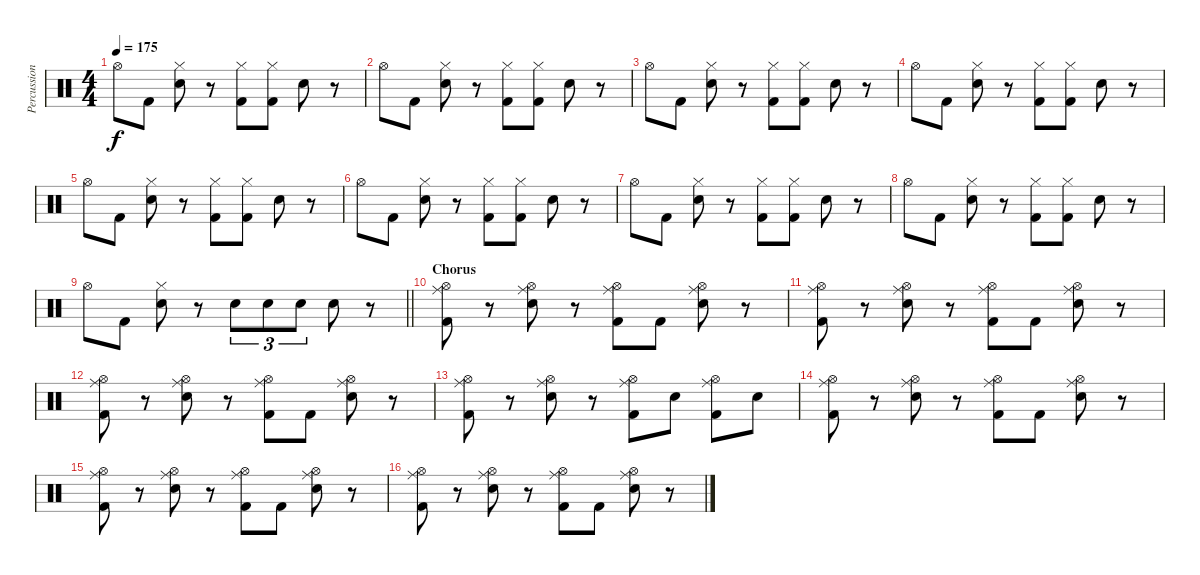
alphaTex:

\track ("Percussion" "Percussion") {instrument percussion}
\staff {score}
\articulation defaults
\ts (4 4)
\tempo 175
\clef neutral
\ks c "Hi-Hat (open)".8{dy f} "Kick (hit) 2".8
("Hi-Hat (closed)" "Snare (hit) 2").8 r.8 ("Hi-Hat (closed)" "Kick (hit) 2").8 ("Hi-Hat (closed)" "Kick (hit) 2").8 "Snare (hit) 2".8 r.8 |
"Hi-Hat (open)".8 "Kick (hit) 2".8 ("Hi-Hat (closed)" "Snare (hit) 2").8 r.8 ("Hi-Hat (closed)" "Kick (hit) 2").8 ("Hi-Hat (closed)" "Kick (hit) 2").8 "Snare (hit) 2".8 r.8 |
"Hi-Hat (open)".8 "Kick (hit) 2".8 ("Hi-Hat (closed)" "Snare (hit) 2").8 r.8 ("Hi-Hat (closed)" "Kick (hit) 2").8 ("Hi-Hat (closed)" "Kick (hit) 2").8 "Snare (hit) 2".8 r.8 |
"Hi-Hat (open)".8 "Kick (hit) 2".8 ("Hi-Hat (closed)" "Snare (hit) 2").8 r.8 ("Hi-Hat (closed)" "Kick (hit) 2").8 ("Hi-Hat (closed)" "Kick (hit) 2").8 "Snare (hit) 2".8 r.8 |
"Hi-Hat (open)".8 "Kick (hit) 2".8 ("Hi-Hat (closed)" "Snare (hit) 2").8 r.8 ("Hi-Hat (closed)" "Kick (hit) 2").8 ("Hi-Hat (closed)" "Kick (hit) 2").8 "Snare (hit) 2".8 r.8 |
"Hi-Hat (open)".8 "Kick (hit) 2".8 ("Hi-Hat (closed)" "Snare (hit) 2").8 r.8 ("Hi-Hat (closed)" "Kick (hit) 2").8 ("Hi-Hat (closed)" "Kick (hit) 2").8 "Snare (hit) 2".8 r.8 |
"Hi-Hat (open)".8 "Kick (hit) 2".8 ("Hi-Hat (closed)" "Snare (hit) 2").8 r.8 ("Hi-Hat (closed)" "Kick (hit) 2").8 ("Hi-Hat (closed)" "Kick (hit) 2").8 "Snare (hit) 2".8 r.8 |
"Hi-Hat (open)".8 "Kick (hit) 2".8 ("Hi-Hat (closed)" "Snare (hit) 2").8 r.8 ("Hi-Hat (closed)" "Kick (hit) 2").8 ("Hi-Hat (closed)" "Kick (hit) 2").8 "Snare (hit) 2".8 r.8 |
\barLineRight lightlight "Hi-Hat (open)".8 "Kick (hit) 2".8
("Hi-Hat (closed)" "Snare (hit) 2").8 r.8 "Snare (hit) 2".8{tu (3 2) volume 14} "Snare (hit) 2".8{tu (3 2)} "Snare (hit) 2".8{tu (3 2)} "Snare (hit) 2".8 r.8 |
\section ("" "Chorus")
("Hi-Hat (open)" "Ride (middle)" "Kick (hit) 2").8 r.8 ("Hi-Hat (open)" "Ride (middle)" "Snare (hit) 2").8 r.8 ("Hi-Hat (open)" "Ride (middle)" "Kick (hit) 2").8 "Kick (hit) 2".8 ("Hi-Hat (open)" "Ride (middle)" "Snare (hit) 2").8 r.8 |
("Hi-Hat (open)" "Ride (middle)" "Kick (hit) 2").8 r.8 ("Hi-Hat (open)" "Ride (middle)" "Snare (hit) 2").8 r.8 ("Hi-Hat (open)" "Ride (middle)" "Kick (hit) 2").8 "Kick (hit) 2".8 ("Hi-Hat (open)" "Ride (middle)" "Snare (hit) 2").8 r.8 |
("Hi-Hat (open)" "Ride (middle)" "Kick (hit) 2").8 r.8 ("Hi-Hat (open)" "Ride (middle)" "Snare (hit) 2").8 r.8 ("Hi-Hat (open)" "Ride (middle)" "Kick (hit) 2").8 "Kick (hit) 2".8 ("Hi-Hat (open)" "Ride (middle)" "Snare (hit) 2").8 r.8 |
("Hi-Hat (open)" "Ride (middle)" "Kick (hit) 2").8 r.8 ("Hi-Hat (open)" "Ride (middle)" "Snare (hit) 2").8 r.8 ("Hi-Hat (open)" "Ride (middle)" "Kick (hit) 2").8 "Snare (hit) 2".8 ("Hi-Hat (open)" "Ride (middle)" "Kick (hit) 2").8 "Snare (hit) 2".8 |
("Hi-Hat (open)" "Ride (middle)" "Kick (hit) 2").8 r.8 ("Hi-Hat (open)" "Ride (middle)" "Snare (hit) 2").8 r.8 ("Hi-Hat (open)" "Ride (middle)" "Kick (hit) 2").8 "Kick (hit) 2".8 ("Hi-Hat (open)" "Ride (middle)" "Snare (hit) 2").8 r.8 |
("Hi-Hat (open)" "Ride (middle)" "Kick (hit) 2").8 r.8 ("Hi-Hat (open)" "Ride (middle)" "Snare (hit) 2").8 r.8 ("Hi-Hat (open)" "Ride (middle)" "Kick (hit) 2").8 "Kick (hit) 2".8 ("Hi-Hat (open)" "Ride (middle)" "Snare (hit) 2").8 r.8 |
("Hi-Hat (open)" "Ride (middle)" "Kick (hit) 2").8 r.8 ("Hi-Hat (open)" "Ride (middle)" "Snare (hit) 2").8 r.8 ("Hi-Hat (open)" "Ride (middle)" "Kick (hit) 2").8 "Kick (hit) 2".8 ("Hi-Hat (open)" "Ride (middle)" "Snare (hit) 2").8 r.8
